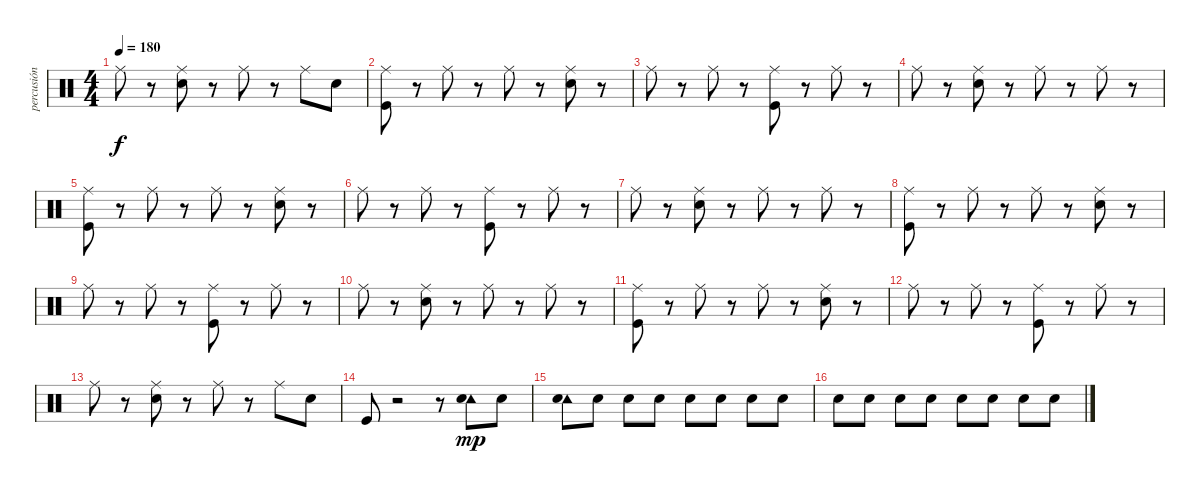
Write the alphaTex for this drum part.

\track ("percusión" "percusión") {instrument percussion}
\staff {score}
\articulation defaults
\ts (4 4)
\tempo 180
\clef neutral
\ks c "Ride (middle)".8{dy f}
r.8 ("Ride (middle)" "Snare (hit) 2").8 r.8 "Ride (middle)".8 r.8 "Ride (middle)".8 "Snare (hit) 2".8 |
("Ride (middle)" "Kick (hit)").8 r.8 "Ride (middle)".8 r.8 "Ride (middle)".8 r.8 ("Ride (middle)" "Snare (hit) 2").8 r.8 |
"Ride (middle)".8 r.8 "Ride (middle)".8 r.8 ("Ride (middle)" "Kick (hit)").8 r.8 "Ride (middle)".8 r.8 |
"Ride (middle)".8 r.8 ("Ride (middle)" "Snare (hit) 2").8 r.8 "Ride (middle)".8 r.8 "Ride (middle)".8 r.8 |
("Kick (hit)" "Ride (middle)").8 r.8 "Ride (middle)".8 r.8 "Ride (middle)".8 r.8 ("Snare (hit) 2" "Ride (middle)").8 r.8 |
"Ride (middle)".8 r.8 "Ride (middle)".8 r.8 ("Kick (hit)" "Ride (middle)").8 r.8 "Ride (middle)".8 r.8 |
"Ride (middle)".8 r.8 ("Snare (hit) 2" "Ride (middle)").8 r.8 "Ride (middle)".8 r.8 "Ride (middle)".8 r.8 |
("Ride (middle)" "Kick (hit)").8 r.8 "Ride (middle)".8 r.8 "Ride (middle)".8 r.8 ("Snare (hit) 2" "Ride (middle)").8 r.8 |
"Ride (middle)".8 r.8 "Ride (middle)".8 r.8 ("Kick (hit)" "Ride (middle)").8 r.8 "Ride (middle)".8 r.8 |
"Ride (middle)".8 r.8 ("Ride (middle)" "Snare (hit) 2").8 r.8 "Ride (middle)".8 r.8 "Ride (middle)".8 r.8 |
("Kick (hit)" "Ride (middle)").8 r.8 "Ride (middle)".8 r.8 "Ride (middle)".8 r.8 ("Ride (middle)" "Snare (hit) 2").8 r.8 |
"Ride (middle)".8 r.8 "Ride (middle)".8 r.8 ("Ride (middle)" "Kick (hit)").8 r.8 "Ride (middle)".8 r.8 |
"Ride (middle)".8 r.8 ("Ride (middle)" "Snare (hit) 2").8 r.8 "Ride (middle)".8 r.8 "Ride (middle)".8 "Snare (hit) 2".8 |
"Kick (hit)".8 r.2 r.8 ("Tambourine (hit)" "Snare (hit) 2").8{dy mp} "Snare (hit) 2".8 |
("Tambourine (hit)" "Snare (hit) 2").8 "Snare (hit) 2".8 "Snare (hit) 2".8 "Snare (hit) 2".8 "Snare (hit) 2".8 "Snare (hit) 2".8 "Snare (hit) 2".8 "Snare (hit) 2".8 |
"Snare (hit) 2".8 "Snare (hit) 2".8 "Snare (hit) 2".8 "Snare (hit) 2".8 "Snare (hit) 2".8 "Snare (hit) 2".8 "Snare (hit) 2".8 "Snare (hit) 2".8
